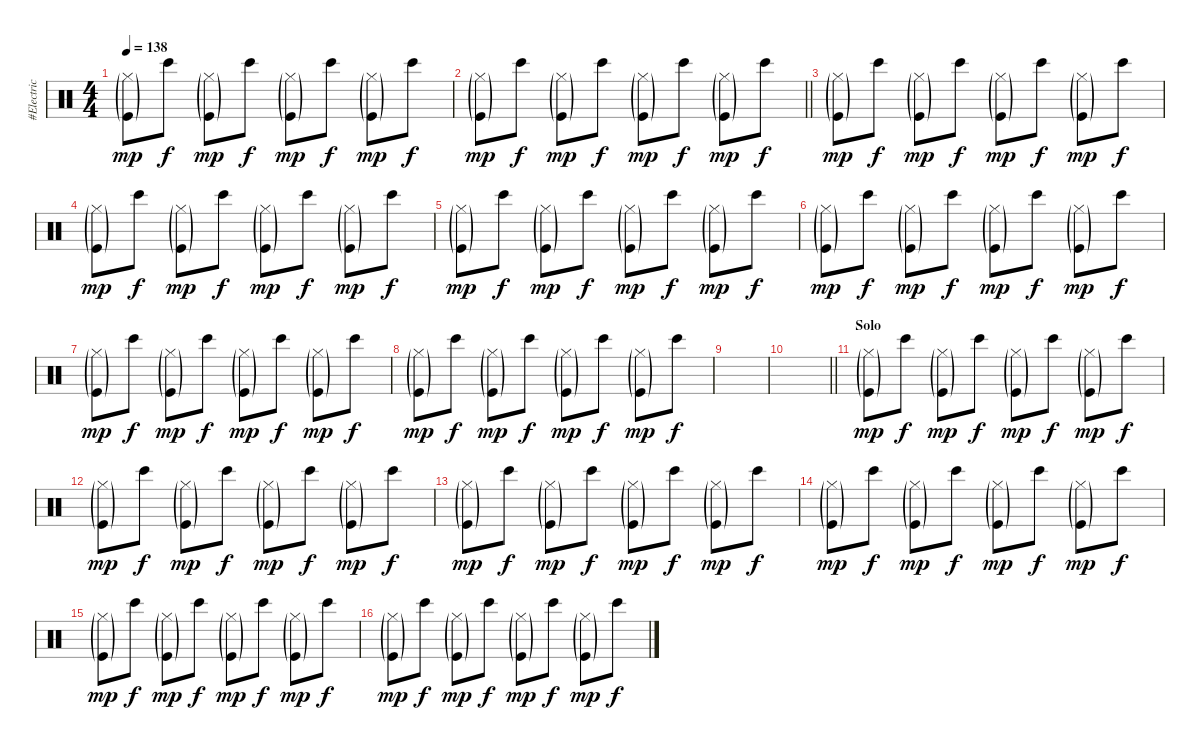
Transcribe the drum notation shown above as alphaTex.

\track ("#Electric Drums" "#Electric ") {instrument percussion}
\staff {score}
\articulation defaults
\ts (4 4)
\tempo 138
\clef neutral
\ks c
("Kick (hit)"{g} "Hi-Hat (closed)"{g}).8{dy mp} "Bongo High (hit)".8{dy f} ("Kick (hit)"{g} "Hi-Hat (closed)"{g}).8{dy mp} "Bongo High (hit)".8{dy f} ("Kick (hit)"{g} "Hi-Hat (closed)"{g}).8{dy mp} "Bongo High (hit)".8{dy f} ("Kick (hit)"{g} "Hi-Hat (closed)"{g}).8{dy mp} "Bongo High (hit)".8{dy f} |
\barLineRight lightlight
("Kick (hit)"{g} "Hi-Hat (closed)"{g}).8{dy mp} "Bongo High (hit)".8{dy f} ("Kick (hit)"{g} "Hi-Hat (closed)"{g}).8{dy mp} "Bongo High (hit)".8{dy f} ("Kick (hit)"{g} "Hi-Hat (closed)"{g}).8{dy mp} "Bongo High (hit)".8{dy f} ("Kick (hit)"{g} "Hi-Hat (closed)"{g}).8{dy mp} "Bongo High (hit)".8{dy f} |
("Kick (hit)"{g} "Hi-Hat (closed)"{g}).8{dy mp} "Bongo High (hit)".8{dy f} ("Kick (hit)"{g} "Hi-Hat (closed)"{g}).8{dy mp} "Bongo High (hit)".8{dy f} ("Kick (hit)"{g} "Hi-Hat (closed)"{g}).8{dy mp} "Bongo High (hit)".8{dy f} ("Kick (hit)"{g} "Hi-Hat (closed)"{g}).8{dy mp} "Bongo High (hit)".8{dy f} |
("Kick (hit)"{g} "Hi-Hat (closed)"{g}).8{dy mp} "Bongo High (hit)".8{dy f} ("Kick (hit)"{g} "Hi-Hat (closed)"{g}).8{dy mp} "Bongo High (hit)".8{dy f} ("Kick (hit)"{g} "Hi-Hat (closed)"{g}).8{dy mp} "Bongo High (hit)".8{dy f} ("Kick (hit)"{g} "Hi-Hat (closed)"{g}).8{dy mp} "Bongo High (hit)".8{dy f} |
("Kick (hit)"{g} "Hi-Hat (closed)"{g}).8{dy mp} "Bongo High (hit)".8{dy f} ("Kick (hit)"{g} "Hi-Hat (closed)"{g}).8{dy mp} "Bongo High (hit)".8{dy f} ("Kick (hit)"{g} "Hi-Hat (closed)"{g}).8{dy mp} "Bongo High (hit)".8{dy f} ("Kick (hit)"{g} "Hi-Hat (closed)"{g}).8{dy mp} "Bongo High (hit)".8{dy f} |
("Kick (hit)"{g} "Hi-Hat (closed)"{g}).8{dy mp} "Bongo High (hit)".8{dy f} ("Kick (hit)"{g} "Hi-Hat (closed)"{g}).8{dy mp} "Bongo High (hit)".8{dy f} ("Kick (hit)"{g} "Hi-Hat (closed)"{g}).8{dy mp} "Bongo High (hit)".8{dy f} ("Kick (hit)"{g} "Hi-Hat (closed)"{g}).8{dy mp} "Bongo High (hit)".8{dy f} |
("Kick (hit)"{g} "Hi-Hat (closed)"{g}).8{dy mp} "Bongo High (hit)".8{dy f} ("Kick (hit)"{g} "Hi-Hat (closed)"{g}).8{dy mp} "Bongo High (hit)".8{dy f} ("Kick (hit)"{g} "Hi-Hat (closed)"{g}).8{dy mp} "Bongo High (hit)".8{dy f} ("Kick (hit)"{g} "Hi-Hat (closed)"{g}).8{dy mp} "Bongo High (hit)".8{dy f} |
("Kick (hit)"{g} "Hi-Hat (closed)"{g}).8{dy mp} "Bongo High (hit)".8{dy f} ("Kick (hit)"{g} "Hi-Hat (closed)"{g}).8{dy mp} "Bongo High (hit)".8{dy f} ("Kick (hit)"{g} "Hi-Hat (closed)"{g}).8{dy mp} "Bongo High (hit)".8{dy f} ("Kick (hit)"{g} "Hi-Hat (closed)"{g}).8{dy mp} "Bongo High (hit)".8{dy f} |
|
\barLineRight lightlight
|
\section ("" "Solo ")
("Kick (hit)"{g} "Hi-Hat (closed)"{g}).8{dy mp} "Bongo High (hit)".8{dy f} ("Kick (hit)"{g} "Hi-Hat (closed)"{g}).8{dy mp} "Bongo High (hit)".8{dy f} ("Kick (hit)"{g} "Hi-Hat (closed)"{g}).8{dy mp} "Bongo High (hit)".8{dy f} ("Kick (hit)"{g} "Hi-Hat (closed)"{g}).8{dy mp} "Bongo High (hit)".8{dy f} |
("Kick (hit)"{g} "Hi-Hat (closed)"{g}).8{dy mp} "Bongo High (hit)".8{dy f} ("Kick (hit)"{g} "Hi-Hat (closed)"{g}).8{dy mp} "Bongo High (hit)".8{dy f} ("Kick (hit)"{g} "Hi-Hat (closed)"{g}).8{dy mp} "Bongo High (hit)".8{dy f} ("Kick (hit)"{g} "Hi-Hat (closed)"{g}).8{dy mp} "Bongo High (hit)".8{dy f} |
("Kick (hit)"{g} "Hi-Hat (closed)"{g}).8{dy mp} "Bongo High (hit)".8{dy f} ("Kick (hit)"{g} "Hi-Hat (closed)"{g}).8{dy mp} "Bongo High (hit)".8{dy f} ("Kick (hit)"{g} "Hi-Hat (closed)"{g}).8{dy mp} "Bongo High (hit)".8{dy f} ("Kick (hit)"{g} "Hi-Hat (closed)"{g}).8{dy mp} "Bongo High (hit)".8{dy f} |
("Kick (hit)"{g} "Hi-Hat (closed)"{g}).8{dy mp} "Bongo High (hit)".8{dy f} ("Kick (hit)"{g} "Hi-Hat (closed)"{g}).8{dy mp} "Bongo High (hit)".8{dy f} ("Kick (hit)"{g} "Hi-Hat (closed)"{g}).8{dy mp} "Bongo High (hit)".8{dy f} ("Kick (hit)"{g} "Hi-Hat (closed)"{g}).8{dy mp} "Bongo High (hit)".8{dy f} |
("Kick (hit)"{g} "Hi-Hat (closed)"{g}).8{dy mp} "Bongo High (hit)".8{dy f} ("Kick (hit)"{g} "Hi-Hat (closed)"{g}).8{dy mp} "Bongo High (hit)".8{dy f} ("Kick (hit)"{g} "Hi-Hat (closed)"{g}).8{dy mp} "Bongo High (hit)".8{dy f} ("Kick (hit)"{g} "Hi-Hat (closed)"{g}).8{dy mp} "Bongo High (hit)".8{dy f} |
("Kick (hit)"{g} "Hi-Hat (closed)"{g}).8{dy mp} "Bongo High (hit)".8{dy f} ("Kick (hit)"{g} "Hi-Hat (closed)"{g}).8{dy mp} "Bongo High (hit)".8{dy f} ("Kick (hit)"{g} "Hi-Hat (closed)"{g}).8{dy mp} "Bongo High (hit)".8{dy f} ("Kick (hit)"{g} "Hi-Hat (closed)"{g}).8{dy mp} "Bongo High (hit)".8{dy f}
